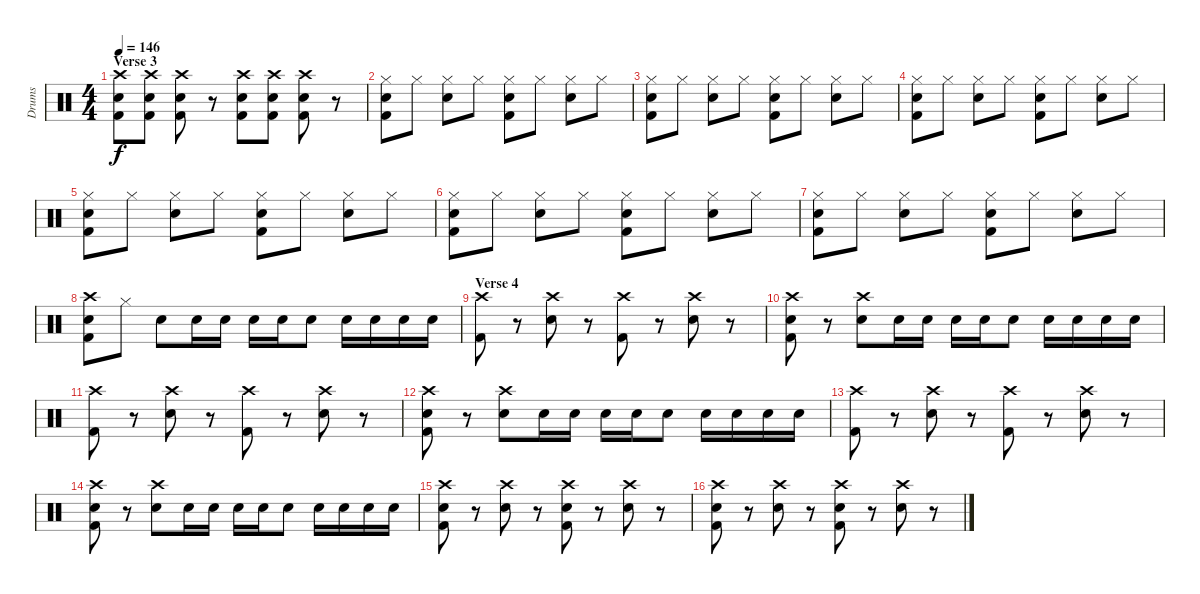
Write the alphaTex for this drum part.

\track ("Drums" "Drums") {instrument percussion}
\staff {score}
\articulation defaults
\ts (4 4)
\section ("" "Verse 3")
\tempo 146
\clef neutral
\ks c
("Crash high (hit)" "Snare (hit) 2" "Kick (hit) 2").8{dy f} ("Crash high (hit)" "Snare (hit) 2" "Kick (hit) 2").8 ("Crash high (hit)" "Snare (hit) 2" "Kick (hit) 2").8 r.8 ("Crash high (hit)" "Snare (hit) 2" "Kick (hit) 2").8 ("Crash high (hit)" "Snare (hit) 2" "Kick (hit) 2").8 ("Crash high (hit)" "Snare (hit) 2" "Kick (hit) 2").8 r.8 |
("Hi-Hat (closed)" "Snare (hit) 2" "Kick (hit) 2").8 "Hi-Hat (closed)".8 ("Hi-Hat (closed)" "Snare (hit) 2").8 "Hi-Hat (closed)".8 ("Hi-Hat (closed)" "Snare (hit) 2" "Kick (hit) 2").8 "Hi-Hat (closed)".8 ("Hi-Hat (closed)" "Snare (hit) 2").8 "Hi-Hat (closed)".8 |
("Hi-Hat (closed)" "Snare (hit) 2" "Kick (hit) 2").8 "Hi-Hat (closed)".8 ("Hi-Hat (closed)" "Snare (hit) 2").8 "Hi-Hat (closed)".8 ("Hi-Hat (closed)" "Snare (hit) 2" "Kick (hit) 2").8 "Hi-Hat (closed)".8 ("Hi-Hat (closed)" "Snare (hit) 2").8 "Hi-Hat (closed)".8 |
("Hi-Hat (closed)" "Snare (hit) 2" "Kick (hit) 2").8 "Hi-Hat (closed)".8 ("Hi-Hat (closed)" "Snare (hit) 2").8 "Hi-Hat (closed)".8 ("Hi-Hat (closed)" "Snare (hit) 2" "Kick (hit) 2").8 "Hi-Hat (closed)".8 ("Hi-Hat (closed)" "Snare (hit) 2").8 "Hi-Hat (closed)".8 |
("Hi-Hat (closed)" "Snare (hit) 2" "Kick (hit) 2").8 "Hi-Hat (closed)".8 ("Hi-Hat (closed)" "Snare (hit) 2").8 "Hi-Hat (closed)".8 ("Hi-Hat (closed)" "Snare (hit) 2" "Kick (hit) 2").8 "Hi-Hat (closed)".8 ("Hi-Hat (closed)" "Snare (hit) 2").8 "Hi-Hat (closed)".8 |
("Hi-Hat (closed)" "Snare (hit) 2" "Kick (hit) 2").8 "Hi-Hat (closed)".8 ("Hi-Hat (closed)" "Snare (hit) 2").8 "Hi-Hat (closed)".8 ("Hi-Hat (closed)" "Snare (hit) 2" "Kick (hit) 2").8 "Hi-Hat (closed)".8 ("Hi-Hat (closed)" "Snare (hit) 2").8 "Hi-Hat (closed)".8 |
("Hi-Hat (closed)" "Snare (hit) 2" "Kick (hit) 2").8 "Hi-Hat (closed)".8 ("Hi-Hat (closed)" "Snare (hit) 2").8 "Hi-Hat (closed)".8 ("Hi-Hat (closed)" "Snare (hit) 2" "Kick (hit) 2").8 "Hi-Hat (closed)".8 ("Hi-Hat (closed)" "Snare (hit) 2").8 "Hi-Hat (closed)".8 |
("Crash high (hit)" "Snare (hit) 2" "Kick (hit) 2").8 "Hi-Hat (closed)".8 "Snare (hit) 2".8 "Snare (hit) 2".16 "Snare (hit) 2".16 "Snare (hit) 2".16 "Snare (hit) 2".16 "Snare (hit) 2".8 "Snare (hit) 2".16 "Snare (hit) 2".16 "Snare (hit) 2".16 "Snare (hit) 2".16 |
\section ("" "Verse 4")
("Crash high (hit)" "Kick (hit) 2").8 r.8 ("Crash high (hit)" "Snare (hit) 2").8 r.8 ("Crash high (hit)" "Kick (hit) 2").8 r.8 ("Crash high (hit)" "Snare (hit) 2").8 r.8 |
("Crash high (hit)" "Snare (hit) 2" "Kick (hit) 2").8 r.8 ("Crash high (hit)" "Snare (hit) 2").8 "Snare (hit) 2".16 "Snare (hit) 2".16 "Snare (hit) 2".16 "Snare (hit) 2".16 "Snare (hit) 2".8 "Snare (hit) 2".16 "Snare (hit) 2".16 "Snare (hit) 2".16 "Snare (hit) 2".16 |
("Crash high (hit)" "Kick (hit) 2").8 r.8 ("Crash high (hit)" "Snare (hit) 2").8 r.8 ("Crash high (hit)" "Kick (hit) 2").8 r.8 ("Crash high (hit)" "Snare (hit) 2").8 r.8 |
("Crash high (hit)" "Snare (hit) 2" "Kick (hit) 2").8 r.8 ("Crash high (hit)" "Snare (hit) 2").8 "Snare (hit) 2".16 "Snare (hit) 2".16 "Snare (hit) 2".16 "Snare (hit) 2".16 "Snare (hit) 2".8 "Snare (hit) 2".16 "Snare (hit) 2".16 "Snare (hit) 2".16 "Snare (hit) 2".16 |
("Crash high (hit)" "Kick (hit) 2").8 r.8 ("Crash high (hit)" "Snare (hit) 2").8 r.8 ("Crash high (hit)" "Kick (hit) 2").8 r.8 ("Crash high (hit)" "Snare (hit) 2").8 r.8 |
("Crash high (hit)" "Snare (hit) 2" "Kick (hit) 2").8 r.8 ("Crash high (hit)" "Snare (hit) 2").8 "Snare (hit) 2".16 "Snare (hit) 2".16 "Snare (hit) 2".16 "Snare (hit) 2".16 "Snare (hit) 2".8 "Snare (hit) 2".16 "Snare (hit) 2".16 "Snare (hit) 2".16 "Snare (hit) 2".16 |
("Crash high (hit)" "Snare (hit) 2" "Kick (hit) 2").8 r.8 ("Crash high (hit)" "Snare (hit) 2").8 r.8 ("Crash high (hit)" "Snare (hit) 2" "Kick (hit) 2").8 r.8 ("Crash high (hit)" "Snare (hit) 2").8 r.8 |
("Crash high (hit)" "Snare (hit) 2" "Kick (hit) 2").8 r.8 ("Crash high (hit)" "Snare (hit) 2").8 r.8 ("Crash high (hit)" "Snare (hit) 2" "Kick (hit) 2").8 r.8 ("Crash high (hit)" "Snare (hit) 2").8 r.8
